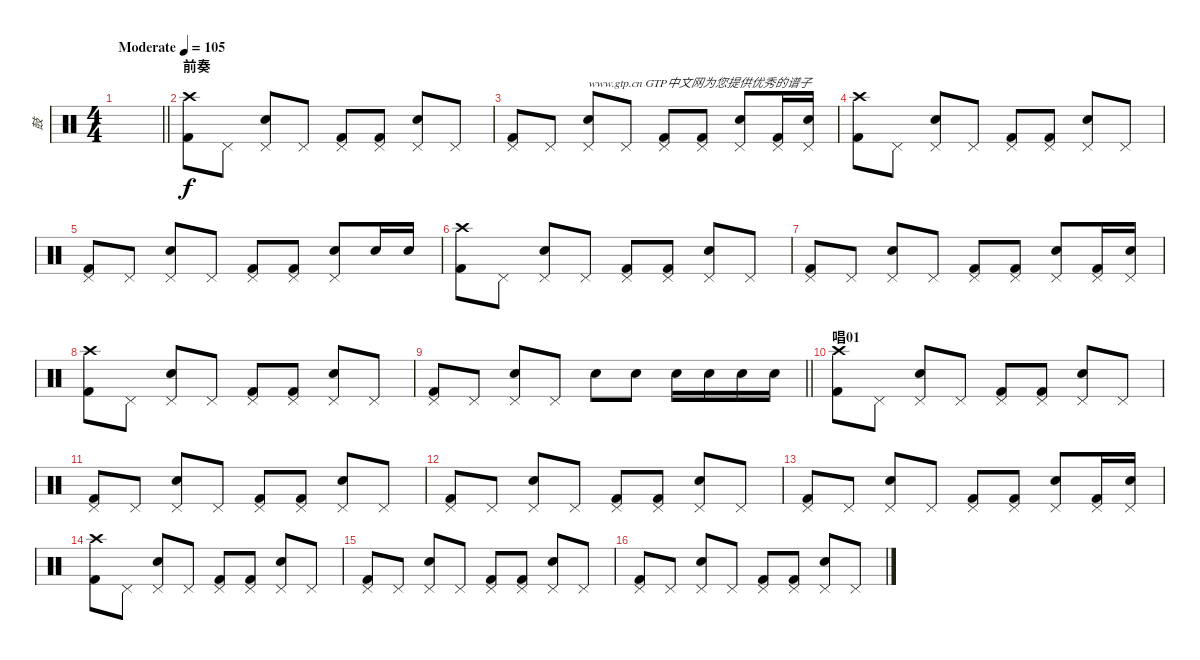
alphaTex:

\track ("鼓" "鼓") {instrument percussion}
\staff {score}
\articulation defaults
\ts (4 4)
\tempo (105 "Moderate")
\clef neutral
\barLineRight lightlight
\ks c
|
\section ("" "前奏")
("Crash high (hit)" "Kick (hit) 2").8 "Pedal Hi-Hat (hit)".8 ("Pedal Hi-Hat (hit)" "Electric Snare (hit)").8 "Pedal Hi-Hat (hit)".8 ("Pedal Hi-Hat (hit)" "Kick (hit) 2").8 ("Pedal Hi-Hat (hit)" "Kick (hit) 2").8 ("Pedal Hi-Hat (hit)" "Electric Snare (hit)").8 "Pedal Hi-Hat (hit)".8 |
("Pedal Hi-Hat (hit)" "Kick (hit) 2").8 "Pedal Hi-Hat (hit)".8 ("Pedal Hi-Hat (hit)" "Electric Snare (hit)").8{txt "www.gtp.cn GTP中文网为您提供优秀的谱子"} "Pedal Hi-Hat (hit)".8 ("Pedal Hi-Hat (hit)" "Kick (hit) 2").8 ("Pedal Hi-Hat (hit)" "Kick (hit) 2").8 ("Pedal Hi-Hat (hit)" "Electric Snare (hit)").8 ("Pedal Hi-Hat (hit)" "Kick (hit) 2").16 ("Pedal Hi-Hat (hit)" "Electric Snare (hit)").16 |
("Crash high (hit)" "Kick (hit) 2").8 "Pedal Hi-Hat (hit)".8 ("Pedal Hi-Hat (hit)" "Electric Snare (hit)").8 "Pedal Hi-Hat (hit)".8 ("Pedal Hi-Hat (hit)" "Kick (hit) 2").8 ("Pedal Hi-Hat (hit)" "Kick (hit) 2").8 ("Pedal Hi-Hat (hit)" "Electric Snare (hit)").8 "Pedal Hi-Hat (hit)".8 |
("Pedal Hi-Hat (hit)" "Kick (hit) 2").8 "Pedal Hi-Hat (hit)".8 ("Pedal Hi-Hat (hit)" "Electric Snare (hit)").8 "Pedal Hi-Hat (hit)".8 ("Pedal Hi-Hat (hit)" "Kick (hit) 2").8 ("Pedal Hi-Hat (hit)" "Kick (hit) 2").8 ("Pedal Hi-Hat (hit)" "Electric Snare (hit)").8 "Electric Snare (hit)".16 "Electric Snare (hit)".16 |
("Crash high (hit)" "Kick (hit) 2").8 "Pedal Hi-Hat (hit)".8 ("Pedal Hi-Hat (hit)" "Electric Snare (hit)").8 "Pedal Hi-Hat (hit)".8 ("Pedal Hi-Hat (hit)" "Kick (hit) 2").8 ("Pedal Hi-Hat (hit)" "Kick (hit) 2").8 ("Pedal Hi-Hat (hit)" "Electric Snare (hit)").8 "Pedal Hi-Hat (hit)".8 |
("Pedal Hi-Hat (hit)" "Kick (hit) 2").8 "Pedal Hi-Hat (hit)".8 ("Pedal Hi-Hat (hit)" "Electric Snare (hit)").8 "Pedal Hi-Hat (hit)".8 ("Pedal Hi-Hat (hit)" "Kick (hit) 2").8 ("Pedal Hi-Hat (hit)" "Kick (hit) 2").8 ("Pedal Hi-Hat (hit)" "Electric Snare (hit)").8 ("Pedal Hi-Hat (hit)" "Kick (hit) 2").16 ("Pedal Hi-Hat (hit)" "Electric Snare (hit)").16 |
("Crash high (hit)" "Kick (hit) 2").8 "Pedal Hi-Hat (hit)".8 ("Pedal Hi-Hat (hit)" "Electric Snare (hit)").8 "Pedal Hi-Hat (hit)".8 ("Pedal Hi-Hat (hit)" "Kick (hit) 2").8 ("Pedal Hi-Hat (hit)" "Kick (hit) 2").8 ("Pedal Hi-Hat (hit)" "Electric Snare (hit)").8 "Pedal Hi-Hat (hit)".8 |
\barLineRight lightlight
("Pedal Hi-Hat (hit)" "Kick (hit) 2").8 "Pedal Hi-Hat (hit)".8 ("Pedal Hi-Hat (hit)" "Electric Snare (hit)").8 "Pedal Hi-Hat (hit)".8 "Electric Snare (hit)".8 "Electric Snare (hit)".8 "Electric Snare (hit)".16 "Electric Snare (hit)".16 "Electric Snare (hit)".16 "Electric Snare (hit)".16 |
\section ("" "唱01")
("Crash high (hit)" "Kick (hit) 2").8 "Pedal Hi-Hat (hit)".8 ("Pedal Hi-Hat (hit)" "Electric Snare (hit)").8 "Pedal Hi-Hat (hit)".8 ("Pedal Hi-Hat (hit)" "Kick (hit) 2").8 ("Pedal Hi-Hat (hit)" "Kick (hit) 2").8 ("Pedal Hi-Hat (hit)" "Electric Snare (hit)").8 "Pedal Hi-Hat (hit)".8 |
("Pedal Hi-Hat (hit)" "Kick (hit) 2").8 "Pedal Hi-Hat (hit)".8 ("Pedal Hi-Hat (hit)" "Electric Snare (hit)").8 "Pedal Hi-Hat (hit)".8 ("Pedal Hi-Hat (hit)" "Kick (hit) 2").8 ("Pedal Hi-Hat (hit)" "Kick (hit) 2").8 ("Pedal Hi-Hat (hit)" "Electric Snare (hit)").8 "Pedal Hi-Hat (hit)".8 |
("Pedal Hi-Hat (hit)" "Kick (hit) 2").8 "Pedal Hi-Hat (hit)".8 ("Pedal Hi-Hat (hit)" "Electric Snare (hit)").8 "Pedal Hi-Hat (hit)".8 ("Pedal Hi-Hat (hit)" "Kick (hit) 2").8 ("Pedal Hi-Hat (hit)" "Kick (hit) 2").8 ("Pedal Hi-Hat (hit)" "Electric Snare (hit)").8 "Pedal Hi-Hat (hit)".8 |
("Pedal Hi-Hat (hit)" "Kick (hit) 2").8 "Pedal Hi-Hat (hit)".8 ("Pedal Hi-Hat (hit)" "Electric Snare (hit)").8 "Pedal Hi-Hat (hit)".8 ("Pedal Hi-Hat (hit)" "Kick (hit) 2").8 ("Pedal Hi-Hat (hit)" "Kick (hit) 2").8 ("Pedal Hi-Hat (hit)" "Electric Snare (hit)").8 ("Pedal Hi-Hat (hit)" "Kick (hit) 2").16 ("Pedal Hi-Hat (hit)" "Electric Snare (hit)").16 |
("Crash high (hit)" "Kick (hit) 2").8 "Pedal Hi-Hat (hit)".8 ("Pedal Hi-Hat (hit)" "Electric Snare (hit)").8 "Pedal Hi-Hat (hit)".8 ("Pedal Hi-Hat (hit)" "Kick (hit) 2").8 ("Pedal Hi-Hat (hit)" "Kick (hit) 2").8 ("Pedal Hi-Hat (hit)" "Electric Snare (hit)").8 "Pedal Hi-Hat (hit)".8 |
("Pedal Hi-Hat (hit)" "Kick (hit) 2").8 "Pedal Hi-Hat (hit)".8 ("Pedal Hi-Hat (hit)" "Electric Snare (hit)").8 "Pedal Hi-Hat (hit)".8 ("Pedal Hi-Hat (hit)" "Kick (hit) 2").8 ("Pedal Hi-Hat (hit)" "Kick (hit) 2").8 ("Pedal Hi-Hat (hit)" "Electric Snare (hit)").8 "Pedal Hi-Hat (hit)".8 |
("Pedal Hi-Hat (hit)" "Kick (hit) 2").8 "Pedal Hi-Hat (hit)".8 ("Pedal Hi-Hat (hit)" "Electric Snare (hit)").8 "Pedal Hi-Hat (hit)".8 ("Pedal Hi-Hat (hit)" "Kick (hit) 2").8 ("Pedal Hi-Hat (hit)" "Kick (hit) 2").8 ("Pedal Hi-Hat (hit)" "Electric Snare (hit)").8 "Pedal Hi-Hat (hit)".8
